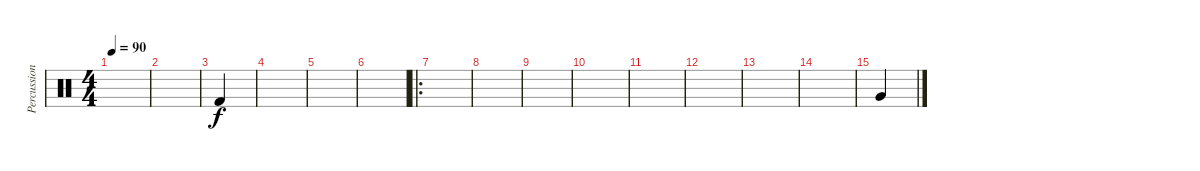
\track ("Percussions" "Percussion") {instrument percussion}
\staff {score}
\articulation defaults
\ts (4 4)
\tempo 90
\clef neutral
\ks c
|
|
"Kick (hit) 2".4 |
|
|
|
\ro
|
|
|
|
|
|
|
|
"Very Low Tom (hit)".4
